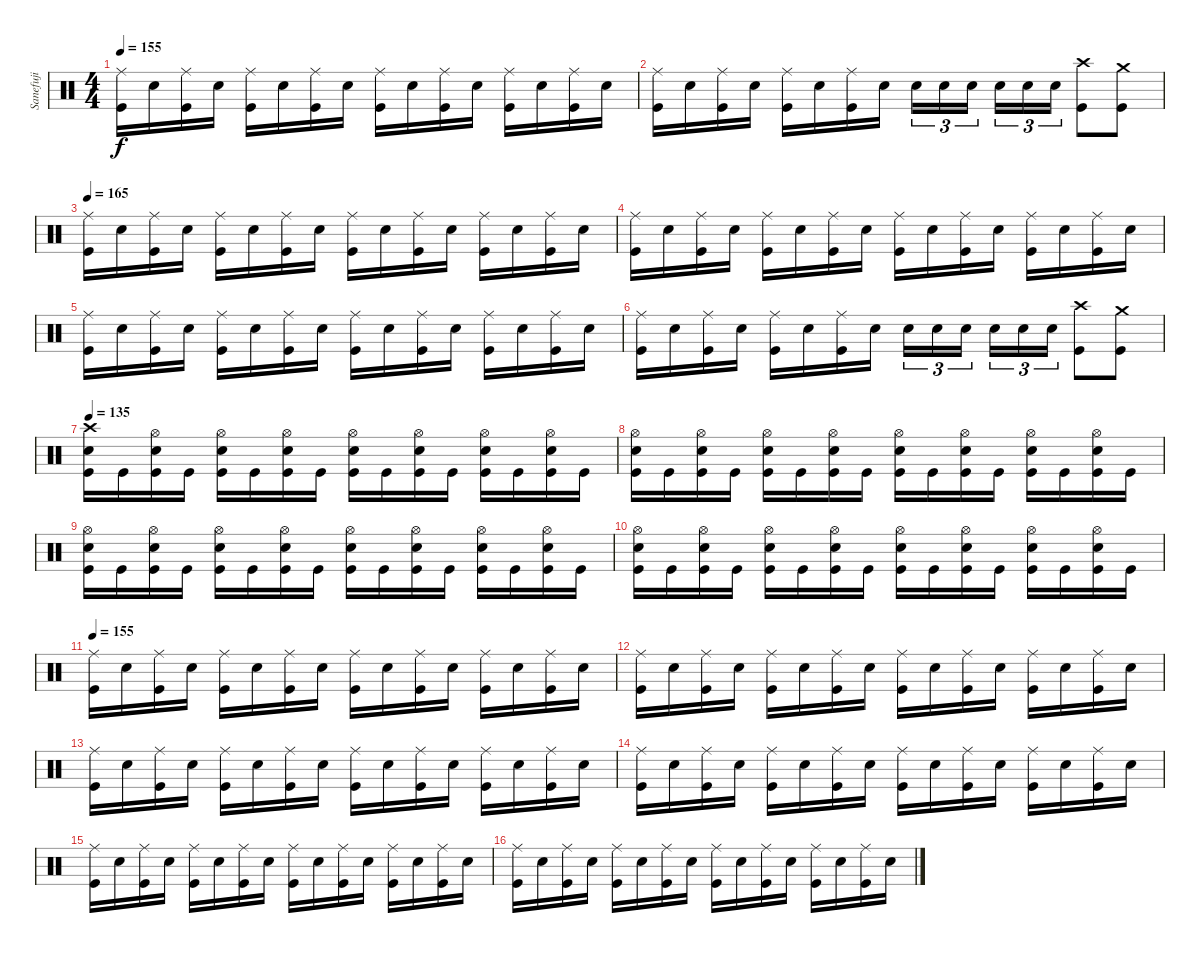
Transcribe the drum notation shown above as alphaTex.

\track ("Sanefuji" "Sanefuji") {instrument percussion}
\staff {score}
\articulation defaults
\ts (4 4)
\tempo 155
\clef neutral
\ks c
("Ride (middle)" "Kick (hit)").16{dy f} "Electric Snare (hit)".16 ("Ride (middle)" "Kick (hit)").16 "Electric Snare (hit)".16 ("Ride (middle)" "Kick (hit)").16 "Electric Snare (hit)".16 ("Ride (middle)" "Kick (hit)").16 "Electric Snare (hit)".16 ("Ride (middle)" "Kick (hit)").16 "Electric Snare (hit)".16 ("Ride (middle)" "Kick (hit)").16 "Electric Snare (hit)".16 ("Ride (middle)" "Kick (hit)").16 "Electric Snare (hit)".16 ("Ride (middle)" "Kick (hit)").16 "Electric Snare (hit)".16 |
("Ride (middle)" "Kick (hit)").16 "Electric Snare (hit)".16 ("Ride (middle)" "Kick (hit)").16 "Electric Snare (hit)".16 ("Ride (middle)" "Kick (hit)").16 "Electric Snare (hit)".16 ("Ride (middle)" "Kick (hit)").16 "Electric Snare (hit)".16 "Electric Snare (hit)".16{tu (3 2)} "Electric Snare (hit)".16{tu (3 2)} "Electric Snare (hit)".16{tu (3 2) beam splitsecondary} "Electric Snare (hit)".16{tu (3 2)} "Electric Snare (hit)".16{tu (3 2)} "Electric Snare (hit)".16{tu (3 2)} ("Crash high (hit)" "Kick (hit)").8 ("Crash medium (hit)" "Kick (hit)").8 |
\tempo 165
("Ride (middle)" "Kick (hit)").16 "Electric Snare (hit)".16 ("Ride (middle)" "Kick (hit)").16 "Electric Snare (hit)".16 ("Ride (middle)" "Kick (hit)").16 "Electric Snare (hit)".16 ("Ride (middle)" "Kick (hit)").16 "Electric Snare (hit)".16 ("Ride (middle)" "Kick (hit)").16 "Electric Snare (hit)".16 ("Ride (middle)" "Kick (hit)").16 "Electric Snare (hit)".16 ("Ride (middle)" "Kick (hit)").16 "Electric Snare (hit)".16 ("Ride (middle)" "Kick (hit)").16 "Electric Snare (hit)".16 |
("Ride (middle)" "Kick (hit)").16 "Electric Snare (hit)".16 ("Ride (middle)" "Kick (hit)").16 "Electric Snare (hit)".16 ("Ride (middle)" "Kick (hit)").16 "Electric Snare (hit)".16 ("Ride (middle)" "Kick (hit)").16 "Electric Snare (hit)".16 ("Ride (middle)" "Kick (hit)").16 "Electric Snare (hit)".16 ("Ride (middle)" "Kick (hit)").16 "Electric Snare (hit)".16 ("Ride (middle)" "Kick (hit)").16 "Electric Snare (hit)".16 ("Ride (middle)" "Kick (hit)").16 "Electric Snare (hit)".16 |
("Ride (middle)" "Kick (hit)").16 "Electric Snare (hit)".16 ("Ride (middle)" "Kick (hit)").16 "Electric Snare (hit)".16 ("Ride (middle)" "Kick (hit)").16 "Electric Snare (hit)".16 ("Ride (middle)" "Kick (hit)").16 "Electric Snare (hit)".16 ("Ride (middle)" "Kick (hit)").16 "Electric Snare (hit)".16 ("Ride (middle)" "Kick (hit)").16 "Electric Snare (hit)".16 ("Ride (middle)" "Kick (hit)").16 "Electric Snare (hit)".16 ("Ride (middle)" "Kick (hit)").16 "Electric Snare (hit)".16 |
("Ride (middle)" "Kick (hit)").16 "Electric Snare (hit)".16 ("Ride (middle)" "Kick (hit)").16 "Electric Snare (hit)".16 ("Ride (middle)" "Kick (hit)").16 "Electric Snare (hit)".16 ("Ride (middle)" "Kick (hit)").16 "Electric Snare (hit)".16 "Electric Snare (hit)".16{tu (3 2)} "Electric Snare (hit)".16{tu (3 2)} "Electric Snare (hit)".16{tu (3 2) beam splitsecondary} "Electric Snare (hit)".16{tu (3 2)} "Electric Snare (hit)".16{tu (3 2)} "Electric Snare (hit)".16{tu (3 2)} ("Crash high (hit)" "Kick (hit)").8 ("Crash medium (hit)" "Kick (hit)").8 |
\tempo 135
("Crash high (hit)" "Electric Snare (hit)" "Kick (hit)").16 "Kick (hit)".16 ("Hi-Hat (open)" "Electric Snare (hit)" "Kick (hit)").16 "Kick (hit)".16 ("Hi-Hat (open)" "Electric Snare (hit)" "Kick (hit)").16 "Kick (hit)".16 ("Hi-Hat (open)" "Electric Snare (hit)" "Kick (hit)").16 "Kick (hit)".16 ("Hi-Hat (open)" "Electric Snare (hit)" "Kick (hit)").16 "Kick (hit)".16 ("Hi-Hat (open)" "Electric Snare (hit)" "Kick (hit)").16 "Kick (hit)".16 ("Hi-Hat (open)" "Electric Snare (hit)" "Kick (hit)").16 "Kick (hit)".16 ("Hi-Hat (open)" "Electric Snare (hit)" "Kick (hit)").16 "Kick (hit)".16 |
("Hi-Hat (open)" "Electric Snare (hit)" "Kick (hit)").16 "Kick (hit)".16 ("Hi-Hat (open)" "Electric Snare (hit)" "Kick (hit)").16 "Kick (hit)".16 ("Hi-Hat (open)" "Electric Snare (hit)" "Kick (hit)").16 "Kick (hit)".16 ("Hi-Hat (open)" "Electric Snare (hit)" "Kick (hit)").16 "Kick (hit)".16 ("Hi-Hat (open)" "Electric Snare (hit)" "Kick (hit)").16 "Kick (hit)".16 ("Hi-Hat (open)" "Electric Snare (hit)" "Kick (hit)").16 "Kick (hit)".16 ("Hi-Hat (open)" "Electric Snare (hit)" "Kick (hit)").16 "Kick (hit)".16 ("Hi-Hat (open)" "Electric Snare (hit)" "Kick (hit)").16 "Kick (hit)".16 |
("Hi-Hat (open)" "Electric Snare (hit)" "Kick (hit)").16 "Kick (hit)".16 ("Hi-Hat (open)" "Electric Snare (hit)" "Kick (hit)").16 "Kick (hit)".16 ("Hi-Hat (open)" "Electric Snare (hit)" "Kick (hit)").16 "Kick (hit)".16 ("Hi-Hat (open)" "Electric Snare (hit)" "Kick (hit)").16 "Kick (hit)".16 ("Hi-Hat (open)" "Electric Snare (hit)" "Kick (hit)").16 "Kick (hit)".16 ("Hi-Hat (open)" "Electric Snare (hit)" "Kick (hit)").16 "Kick (hit)".16 ("Hi-Hat (open)" "Electric Snare (hit)" "Kick (hit)").16 "Kick (hit)".16 ("Hi-Hat (open)" "Electric Snare (hit)" "Kick (hit)").16 "Kick (hit)".16 |
("Hi-Hat (open)" "Electric Snare (hit)" "Kick (hit)").16 "Kick (hit)".16 ("Hi-Hat (open)" "Electric Snare (hit)" "Kick (hit)").16 "Kick (hit)".16 ("Hi-Hat (open)" "Electric Snare (hit)" "Kick (hit)").16 "Kick (hit)".16 ("Hi-Hat (open)" "Electric Snare (hit)" "Kick (hit)").16 "Kick (hit)".16 ("Hi-Hat (open)" "Electric Snare (hit)" "Kick (hit)").16 "Kick (hit)".16 ("Hi-Hat (open)" "Electric Snare (hit)" "Kick (hit)").16 "Kick (hit)".16 ("Hi-Hat (open)" "Electric Snare (hit)" "Kick (hit)").16 "Kick (hit)".16 ("Hi-Hat (open)" "Electric Snare (hit)" "Kick (hit)").16 "Kick (hit)".16 |
\tempo 155
("Ride (middle)" "Kick (hit)").16 "Electric Snare (hit)".16 ("Ride (middle)" "Kick (hit)").16 "Electric Snare (hit)".16 ("Ride (middle)" "Kick (hit)").16 "Electric Snare (hit)".16 ("Ride (middle)" "Kick (hit)").16 "Electric Snare (hit)".16 ("Ride (middle)" "Kick (hit)").16 "Electric Snare (hit)".16 ("Ride (middle)" "Kick (hit)").16 "Electric Snare (hit)".16 ("Ride (middle)" "Kick (hit)").16 "Electric Snare (hit)".16 ("Ride (middle)" "Kick (hit)").16 "Electric Snare (hit)".16 |
("Ride (middle)" "Kick (hit)").16 "Electric Snare (hit)".16 ("Ride (middle)" "Kick (hit)").16 "Electric Snare (hit)".16 ("Ride (middle)" "Kick (hit)").16 "Electric Snare (hit)".16 ("Ride (middle)" "Kick (hit)").16 "Electric Snare (hit)".16 ("Ride (middle)" "Kick (hit)").16 "Electric Snare (hit)".16 ("Ride (middle)" "Kick (hit)").16 "Electric Snare (hit)".16 ("Ride (middle)" "Kick (hit)").16 "Electric Snare (hit)".16 ("Ride (middle)" "Kick (hit)").16 "Electric Snare (hit)".16 |
("Ride (middle)" "Kick (hit)").16 "Electric Snare (hit)".16 ("Ride (middle)" "Kick (hit)").16 "Electric Snare (hit)".16 ("Ride (middle)" "Kick (hit)").16 "Electric Snare (hit)".16 ("Ride (middle)" "Kick (hit)").16 "Electric Snare (hit)".16 ("Ride (middle)" "Kick (hit)").16 "Electric Snare (hit)".16 ("Ride (middle)" "Kick (hit)").16 "Electric Snare (hit)".16 ("Ride (middle)" "Kick (hit)").16 "Electric Snare (hit)".16 ("Ride (middle)" "Kick (hit)").16 "Electric Snare (hit)".16 |
("Ride (middle)" "Kick (hit)").16 "Electric Snare (hit)".16 ("Ride (middle)" "Kick (hit)").16 "Electric Snare (hit)".16 ("Ride (middle)" "Kick (hit)").16 "Electric Snare (hit)".16 ("Ride (middle)" "Kick (hit)").16 "Electric Snare (hit)".16 ("Ride (middle)" "Kick (hit)").16 "Electric Snare (hit)".16 ("Ride (middle)" "Kick (hit)").16 "Electric Snare (hit)".16 ("Ride (middle)" "Kick (hit)").16 "Electric Snare (hit)".16 ("Ride (middle)" "Kick (hit)").16 "Electric Snare (hit)".16 |
("Ride (middle)" "Kick (hit)").16 "Electric Snare (hit)".16 ("Ride (middle)" "Kick (hit)").16 "Electric Snare (hit)".16 ("Ride (middle)" "Kick (hit)").16 "Electric Snare (hit)".16 ("Ride (middle)" "Kick (hit)").16 "Electric Snare (hit)".16 ("Ride (middle)" "Kick (hit)").16 "Electric Snare (hit)".16 ("Ride (middle)" "Kick (hit)").16 "Electric Snare (hit)".16 ("Ride (middle)" "Kick (hit)").16 "Electric Snare (hit)".16 ("Ride (middle)" "Kick (hit)").16 "Electric Snare (hit)".16 |
("Ride (middle)" "Kick (hit)").16 "Electric Snare (hit)".16 ("Ride (middle)" "Kick (hit)").16 "Electric Snare (hit)".16 ("Ride (middle)" "Kick (hit)").16 "Electric Snare (hit)".16 ("Ride (middle)" "Kick (hit)").16 "Electric Snare (hit)".16 ("Ride (middle)" "Kick (hit)").16 "Electric Snare (hit)".16 ("Ride (middle)" "Kick (hit)").16 "Electric Snare (hit)".16 ("Ride (middle)" "Kick (hit)").16 "Electric Snare (hit)".16 ("Ride (middle)" "Kick (hit)").16 "Electric Snare (hit)".16
